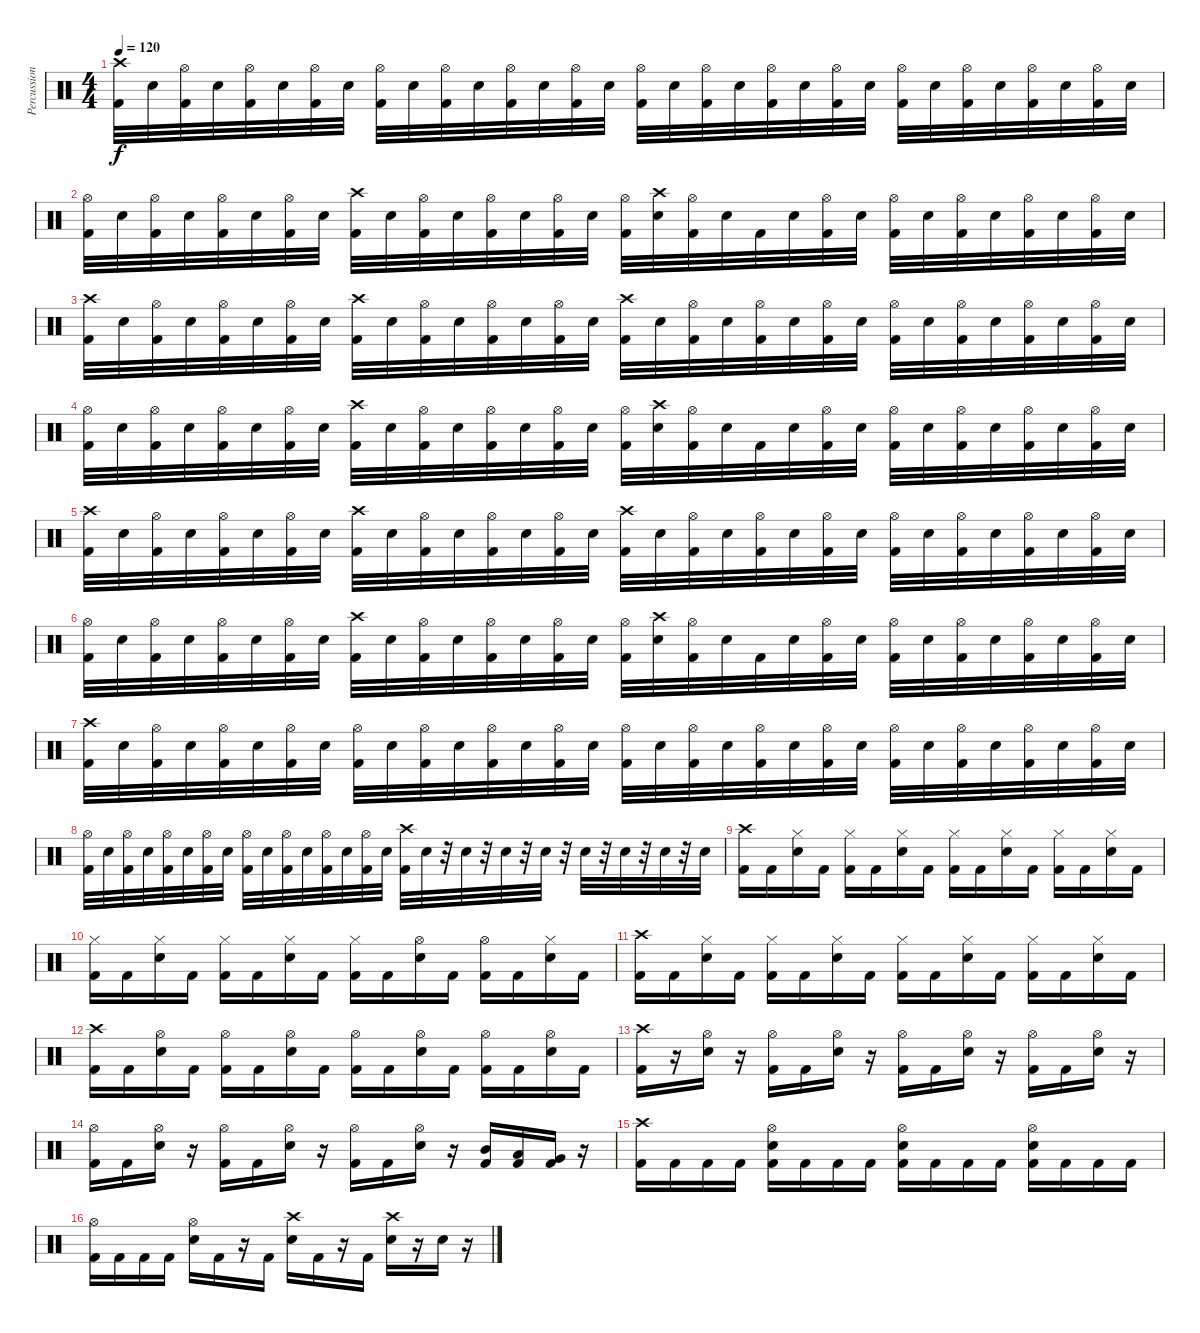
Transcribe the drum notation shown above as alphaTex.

\track ("Percussion" "Percussion") {instrument percussion}
\staff {score}
\articulation defaults
\ts (4 4)
\tempo 120
\clef neutral
\ks c
("Crash high (hit)" "Kick (hit) 2").32{dy f} "Snare (hit) 2".32 ("Hi-Hat (open)" "Kick (hit) 2").32 "Snare (hit) 2".32 ("Hi-Hat (open)" "Kick (hit) 2").32 "Snare (hit) 2".32 ("Hi-Hat (open)" "Kick (hit) 2").32 "Snare (hit) 2".32 ("Hi-Hat (open)" "Kick (hit) 2").32 "Snare (hit) 2".32 ("Hi-Hat (open)" "Kick (hit) 2").32 "Snare (hit) 2".32 ("Hi-Hat (open)" "Kick (hit) 2").32 "Snare (hit) 2".32 ("Hi-Hat (open)" "Kick (hit) 2").32 "Snare (hit) 2".32 ("Hi-Hat (open)" "Kick (hit) 2").32 "Snare (hit) 2".32 ("Hi-Hat (open)" "Kick (hit) 2").32 "Snare (hit) 2".32 ("Hi-Hat (open)" "Kick (hit) 2").32 "Snare (hit) 2".32 ("Hi-Hat (open)" "Kick (hit) 2").32 "Snare (hit) 2".32 ("Hi-Hat (open)" "Kick (hit) 2").32 "Snare (hit) 2".32 ("Hi-Hat (open)" "Kick (hit) 2").32 "Snare (hit) 2".32 ("Hi-Hat (open)" "Kick (hit) 2").32 "Snare (hit) 2".32 ("Hi-Hat (open)" "Kick (hit) 2").32 "Snare (hit) 2".32 |
("Hi-Hat (open)" "Kick (hit) 2").32 "Snare (hit) 2".32 ("Hi-Hat (open)" "Kick (hit) 2").32 "Snare (hit) 2".32 ("Hi-Hat (open)" "Kick (hit) 2").32 "Snare (hit) 2".32 ("Hi-Hat (open)" "Kick (hit) 2").32 "Snare (hit) 2".32 ("Crash high (hit)" "Kick (hit) 2").32 "Snare (hit) 2".32 ("Hi-Hat (open)" "Kick (hit) 2").32 "Snare (hit) 2".32 ("Hi-Hat (open)" "Kick (hit) 2").32 "Snare (hit) 2".32 ("Hi-Hat (open)" "Kick (hit) 2").32 "Snare (hit) 2".32 ("Hi-Hat (open)" "Kick (hit) 2").32 ("Crash high (hit)" "Snare (hit) 2").32 ("Hi-Hat (open)" "Kick (hit) 2").32 "Snare (hit) 2".32 "Kick (hit) 2".32 "Snare (hit) 2".32 ("Hi-Hat (open)" "Kick (hit) 2").32 "Snare (hit) 2".32 ("Hi-Hat (open)" "Kick (hit) 2").32 "Snare (hit) 2".32 ("Hi-Hat (open)" "Kick (hit) 2").32 "Snare (hit) 2".32 ("Hi-Hat (open)" "Kick (hit) 2").32 "Snare (hit) 2".32 ("Hi-Hat (open)" "Kick (hit) 2").32 "Snare (hit) 2".32 |
("Crash high (hit)" "Kick (hit) 2").32 "Snare (hit) 2".32 ("Hi-Hat (open)" "Kick (hit) 2").32 "Snare (hit) 2".32 ("Hi-Hat (open)" "Kick (hit) 2").32 "Snare (hit) 2".32 ("Hi-Hat (open)" "Kick (hit) 2").32 "Snare (hit) 2".32 ("Crash high (hit)" "Kick (hit) 2").32 "Snare (hit) 2".32 ("Hi-Hat (open)" "Kick (hit) 2").32 "Snare (hit) 2".32 ("Hi-Hat (open)" "Kick (hit) 2").32 "Snare (hit) 2".32 ("Hi-Hat (open)" "Kick (hit) 2").32 "Snare (hit) 2".32 ("Crash high (hit)" "Kick (hit) 2").32 "Snare (hit) 2".32 ("Hi-Hat (open)" "Kick (hit) 2").32 "Snare (hit) 2".32 ("Hi-Hat (open)" "Kick (hit) 2").32 "Snare (hit) 2".32 ("Hi-Hat (open)" "Kick (hit) 2").32 "Snare (hit) 2".32 ("Hi-Hat (open)" "Kick (hit) 2").32 "Snare (hit) 2".32 ("Hi-Hat (open)" "Kick (hit) 2").32 "Snare (hit) 2".32 ("Hi-Hat (open)" "Kick (hit) 2").32 "Snare (hit) 2".32 ("Hi-Hat (open)" "Kick (hit) 2").32 "Snare (hit) 2".32 |
("Hi-Hat (open)" "Kick (hit) 2").32 "Snare (hit) 2".32 ("Hi-Hat (open)" "Kick (hit) 2").32 "Snare (hit) 2".32 ("Hi-Hat (open)" "Kick (hit) 2").32 "Snare (hit) 2".32 ("Hi-Hat (open)" "Kick (hit) 2").32 "Snare (hit) 2".32 ("Crash high (hit)" "Kick (hit) 2").32 "Snare (hit) 2".32 ("Hi-Hat (open)" "Kick (hit) 2").32 "Snare (hit) 2".32 ("Hi-Hat (open)" "Kick (hit) 2").32 "Snare (hit) 2".32 ("Hi-Hat (open)" "Kick (hit) 2").32 "Snare (hit) 2".32 ("Hi-Hat (open)" "Kick (hit) 2").32 ("Crash high (hit)" "Snare (hit) 2").32 ("Hi-Hat (open)" "Kick (hit) 2").32 "Snare (hit) 2".32 "Kick (hit) 2".32 "Snare (hit) 2".32 ("Hi-Hat (open)" "Kick (hit) 2").32 "Snare (hit) 2".32 ("Hi-Hat (open)" "Kick (hit) 2").32 "Snare (hit) 2".32 ("Hi-Hat (open)" "Kick (hit) 2").32 "Snare (hit) 2".32 ("Hi-Hat (open)" "Kick (hit) 2").32 "Snare (hit) 2".32 ("Hi-Hat (open)" "Kick (hit) 2").32 "Snare (hit) 2".32 |
("Crash high (hit)" "Kick (hit) 2").32 "Snare (hit) 2".32 ("Hi-Hat (open)" "Kick (hit) 2").32 "Snare (hit) 2".32 ("Hi-Hat (open)" "Kick (hit) 2").32 "Snare (hit) 2".32 ("Hi-Hat (open)" "Kick (hit) 2").32 "Snare (hit) 2".32 ("Crash high (hit)" "Kick (hit) 2").32 "Snare (hit) 2".32 ("Hi-Hat (open)" "Kick (hit) 2").32 "Snare (hit) 2".32 ("Hi-Hat (open)" "Kick (hit) 2").32 "Snare (hit) 2".32 ("Hi-Hat (open)" "Kick (hit) 2").32 "Snare (hit) 2".32 ("Crash high (hit)" "Kick (hit) 2").32 "Snare (hit) 2".32 ("Hi-Hat (open)" "Kick (hit) 2").32 "Snare (hit) 2".32 ("Hi-Hat (open)" "Kick (hit) 2").32 "Snare (hit) 2".32 ("Hi-Hat (open)" "Kick (hit) 2").32 "Snare (hit) 2".32 ("Hi-Hat (open)" "Kick (hit) 2").32 "Snare (hit) 2".32 ("Hi-Hat (open)" "Kick (hit) 2").32 "Snare (hit) 2".32 ("Hi-Hat (open)" "Kick (hit) 2").32 "Snare (hit) 2".32 ("Hi-Hat (open)" "Kick (hit) 2").32 "Snare (hit) 2".32 |
("Hi-Hat (open)" "Kick (hit) 2").32 "Snare (hit) 2".32 ("Hi-Hat (open)" "Kick (hit) 2").32 "Snare (hit) 2".32 ("Hi-Hat (open)" "Kick (hit) 2").32 "Snare (hit) 2".32 ("Hi-Hat (open)" "Kick (hit) 2").32 "Snare (hit) 2".32 ("Crash high (hit)" "Kick (hit) 2").32 "Snare (hit) 2".32 ("Hi-Hat (open)" "Kick (hit) 2").32 "Snare (hit) 2".32 ("Hi-Hat (open)" "Kick (hit) 2").32 "Snare (hit) 2".32 ("Hi-Hat (open)" "Kick (hit) 2").32 "Snare (hit) 2".32 ("Hi-Hat (open)" "Kick (hit) 2").32 ("Crash high (hit)" "Snare (hit) 2").32 ("Hi-Hat (open)" "Kick (hit) 2").32 "Snare (hit) 2".32 "Kick (hit) 2".32 "Snare (hit) 2".32 ("Hi-Hat (open)" "Kick (hit) 2").32 "Snare (hit) 2".32 ("Hi-Hat (open)" "Kick (hit) 2").32 "Snare (hit) 2".32 ("Hi-Hat (open)" "Kick (hit) 2").32 "Snare (hit) 2".32 ("Hi-Hat (open)" "Kick (hit) 2").32 "Snare (hit) 2".32 ("Hi-Hat (open)" "Kick (hit) 2").32 "Snare (hit) 2".32 |
("Crash high (hit)" "Kick (hit) 2").32 "Snare (hit) 2".32 ("Hi-Hat (open)" "Kick (hit) 2").32 "Snare (hit) 2".32 ("Hi-Hat (open)" "Kick (hit) 2").32 "Snare (hit) 2".32 ("Hi-Hat (open)" "Kick (hit) 2").32 "Snare (hit) 2".32 ("Hi-Hat (open)" "Kick (hit) 2").32 "Snare (hit) 2".32 ("Hi-Hat (open)" "Kick (hit) 2").32 "Snare (hit) 2".32 ("Hi-Hat (open)" "Kick (hit) 2").32 "Snare (hit) 2".32 ("Hi-Hat (open)" "Kick (hit) 2").32 "Snare (hit) 2".32 ("Hi-Hat (open)" "Kick (hit) 2").32 "Snare (hit) 2".32 ("Hi-Hat (open)" "Kick (hit) 2").32 "Snare (hit) 2".32 ("Hi-Hat (open)" "Kick (hit) 2").32 "Snare (hit) 2".32 ("Hi-Hat (open)" "Kick (hit) 2").32 "Snare (hit) 2".32 ("Hi-Hat (open)" "Kick (hit) 2").32 "Snare (hit) 2".32 ("Hi-Hat (open)" "Kick (hit) 2").32 "Snare (hit) 2".32 ("Hi-Hat (open)" "Kick (hit) 2").32 "Snare (hit) 2".32 ("Hi-Hat (open)" "Kick (hit) 2").32 "Snare (hit) 2".32 |
("Hi-Hat (open)" "Kick (hit) 2").32 "Snare (hit) 2".32 ("Hi-Hat (open)" "Kick (hit) 2").32 "Snare (hit) 2".32 ("Hi-Hat (open)" "Kick (hit) 2").32 "Snare (hit) 2".32 ("Hi-Hat (open)" "Kick (hit) 2").32 "Snare (hit) 2".32 ("Hi-Hat (open)" "Kick (hit) 2").32 "Snare (hit) 2".32 ("Hi-Hat (open)" "Kick (hit) 2").32 "Snare (hit) 2".32 ("Hi-Hat (open)" "Kick (hit) 2").32 "Snare (hit) 2".32 ("Hi-Hat (open)" "Kick (hit) 2").32 "Snare (hit) 2".32 ("Crash high (hit)" "Kick (hit) 2").32 "Snare (hit) 2".32 r.32 "Snare (hit) 2".32 r.32 "Snare (hit) 2".32 r.32 "Snare (hit) 2".32 r.32 "Snare (hit) 2".32 r.32 "Snare (hit) 2".32 r.32 "Snare (hit) 2".32 r.32 "Snare (hit) 2".32 |
("Kick (hit) 2" "Crash high (hit)").16 "Kick (hit) 2".16 ("Hi-Hat (closed)" "Snare (hit) 2").16 "Kick (hit) 2".16 ("Kick (hit) 2" "Hi-Hat (closed)").16 "Kick (hit) 2".16 ("Snare (hit) 2" "Hi-Hat (closed)").16 "Kick (hit) 2".16 ("Kick (hit) 2" "Hi-Hat (closed)").16 "Kick (hit) 2".16 ("Snare (hit) 2" "Hi-Hat (closed)").16 "Kick (hit) 2".16 ("Kick (hit) 2" "Hi-Hat (closed)").16 "Kick (hit) 2".16 ("Snare (hit) 2" "Hi-Hat (closed)").16 "Kick (hit) 2".16 |
("Kick (hit) 2" "Hi-Hat (closed)").16 "Kick (hit) 2".16 ("Snare (hit) 2" "Hi-Hat (closed)").16 "Kick (hit) 2".16 ("Kick (hit) 2" "Hi-Hat (closed)").16 "Kick (hit) 2".16 ("Snare (hit) 2" "Hi-Hat (closed)").16 "Kick (hit) 2".16 ("Kick (hit) 2" "Hi-Hat (closed)").16 "Kick (hit) 2".16 ("Snare (hit) 2" "Hi-Hat (open)").16 "Kick (hit) 2".16 ("Kick (hit) 2" "Hi-Hat (open)").16 "Kick (hit) 2".16 ("Snare (hit) 2" "Hi-Hat (closed)").16 "Kick (hit) 2".16 |
("Kick (hit) 2" "Crash high (hit)").16 "Kick (hit) 2".16 ("Hi-Hat (closed)" "Snare (hit) 2").16 "Kick (hit) 2".16 ("Kick (hit) 2" "Hi-Hat (closed)").16 "Kick (hit) 2".16 ("Snare (hit) 2" "Hi-Hat (closed)").16 "Kick (hit) 2".16 ("Kick (hit) 2" "Hi-Hat (closed)").16 "Kick (hit) 2".16 ("Snare (hit) 2" "Hi-Hat (closed)").16 "Kick (hit) 2".16 ("Kick (hit) 2" "Hi-Hat (closed)").16 "Kick (hit) 2".16 ("Snare (hit) 2" "Hi-Hat (closed)").16 "Kick (hit) 2".16 |
("Kick (hit) 2" "Crash high (hit)").16 "Kick (hit) 2".16 ("Snare (hit) 2" "Hi-Hat (open)").16 "Kick (hit) 2".16 ("Kick (hit) 2" "Hi-Hat (open)").16 "Kick (hit) 2".16 ("Snare (hit) 2" "Hi-Hat (open)").16 "Kick (hit) 2".16 ("Kick (hit) 2" "Hi-Hat (open)").16 "Kick (hit) 2".16 ("Snare (hit) 2" "Hi-Hat (open)").16 "Kick (hit) 2".16 ("Kick (hit) 2" "Hi-Hat (open)").16 "Kick (hit) 2".16 ("Snare (hit) 2" "Hi-Hat (open)").16 "Kick (hit) 2".16 |
("Kick (hit) 2" "Crash high (hit)").16 r.16 ("Hi-Hat (open)" "Snare (hit) 2").16 r.16 ("Kick (hit) 2" "Hi-Hat (open)").16 "Kick (hit) 2".16 ("Snare (hit) 2" "Hi-Hat (open)").16 r.16 ("Kick (hit) 2" "Hi-Hat (open)").16 "Kick (hit) 2".16 ("Snare (hit) 2" "Hi-Hat (open)").16 r.16 ("Kick (hit) 2" "Hi-Hat (open)").16 "Kick (hit) 2".16 ("Snare (hit) 2" "Hi-Hat (open)").16 r.16 |
("Kick (hit) 2" "Hi-Hat (open)").16 "Kick (hit) 2".16 ("Snare (hit) 2" "Hi-Hat (open)").16 r.16 ("Kick (hit) 2" "Hi-Hat (open)").16 "Kick (hit) 2".16 ("Snare (hit) 2" "Hi-Hat (open)").16 r.16 ("Kick (hit) 2" "Hi-Hat (open)").16 "Kick (hit) 2".16 ("Snare (hit) 2" "Hi-Hat (open)").16 r.16 ("Mid Tom (hit)" "Kick (hit) 2").16 ("Low Tom (hit)" "Kick (hit) 2").16 ("Very Low Tom (hit)" "Kick (hit) 2").16 r.16 |
("Crash high (hit)" "Kick (hit) 2").16 "Kick (hit) 2".16 "Kick (hit) 2".16 "Kick (hit) 2".16 ("Hi-Hat (open)" "Snare (hit) 2" "Kick (hit) 2").16 "Kick (hit) 2".16 "Kick (hit) 2".16 "Kick (hit) 2".16 ("Hi-Hat (open)" "Snare (hit) 2" "Kick (hit) 2").16 "Kick (hit) 2".16 "Kick (hit) 2".16 "Kick (hit) 2".16 ("Hi-Hat (open)" "Snare (hit) 2" "Kick (hit) 2").16 "Kick (hit) 2".16 "Kick (hit) 2".16 "Kick (hit) 2".16 |
("Hi-Hat (open)" "Kick (hit) 2").16 "Kick (hit) 2".16 "Kick (hit) 2".16 "Kick (hit) 2".16 ("Hi-Hat (open)" "Snare (hit) 2").16 "Kick (hit) 2".16 r.16 "Kick (hit) 2".16 ("Crash high (hit)" "Snare (hit) 2").16 "Kick (hit) 2".16 r.16 "Kick (hit) 2".16 ("Crash high (hit)" "Snare (hit) 2").16 r.16 "Snare (hit) 2".16 r.16
